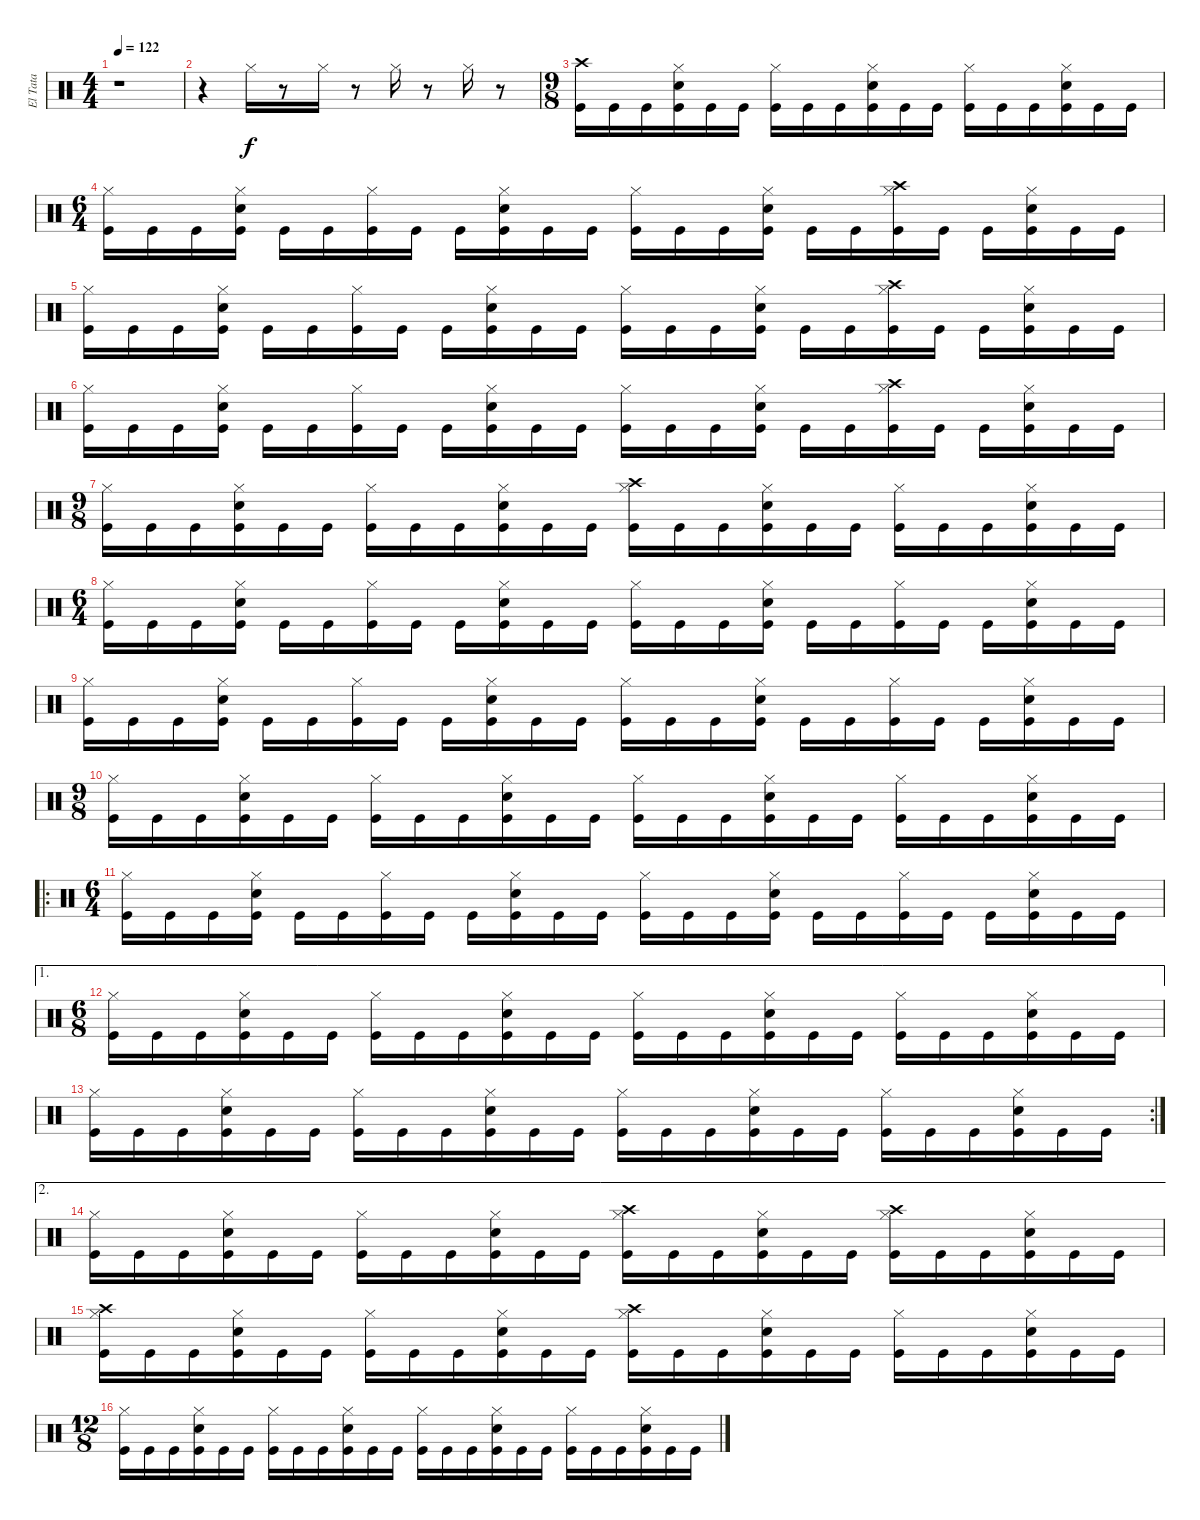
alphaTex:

\track ("El Tata" "El Tata") {instrument percussion}
\staff {score}
\articulation defaults
\ts (4 4)
\tempo 122
\clef neutral
\ks c
r.1{dy f} |
r.4 "Hi-Hat (closed)".16 r.8 "Hi-Hat (closed)".16 r.8 "Hi-Hat (closed)".16 r.8 "Hi-Hat (closed)".16 r.8 |
\ts (9 8)
("Kick (hit)" "Crash high (hit)").16 "Kick (hit)".16 "Kick (hit)".16 ("Kick (hit)" "Hi-Hat (closed)" "Electric Snare (hit)").16 "Kick (hit)".16 "Kick (hit)".16 ("Kick (hit)" "Hi-Hat (closed)").16 "Kick (hit)".16 "Kick (hit)".16 ("Kick (hit)" "Hi-Hat (closed)" "Electric Snare (hit)").16 "Kick (hit)".16 "Kick (hit)".16 ("Kick (hit)" "Hi-Hat (closed)").16 "Kick (hit)".16 "Kick (hit)".16 ("Kick (hit)" "Hi-Hat (closed)" "Electric Snare (hit)").16 "Kick (hit)".16 "Kick (hit)".16 |
\ts (6 4)
("Kick (hit)" "Hi-Hat (closed)").16 "Kick (hit)".16 "Kick (hit)".16 ("Kick (hit)" "Hi-Hat (closed)" "Electric Snare (hit)").16 "Kick (hit)".16 "Kick (hit)".16 ("Kick (hit)" "Hi-Hat (closed)").16 "Kick (hit)".16 "Kick (hit)".16 ("Kick (hit)" "Hi-Hat (closed)" "Electric Snare (hit)").16 "Kick (hit)".16 "Kick (hit)".16 ("Kick (hit)" "Hi-Hat (closed)").16 "Kick (hit)".16 "Kick (hit)".16 ("Kick (hit)" "Hi-Hat (closed)" "Electric Snare (hit)").16 "Kick (hit)".16 "Kick (hit)".16 ("Kick (hit)" "Hi-Hat (closed)" "Crash high (hit)").16 "Kick (hit)".16 "Kick (hit)".16 ("Kick (hit)" "Hi-Hat (closed)" "Electric Snare (hit)").16 "Kick (hit)".16 "Kick (hit)".16 |
("Kick (hit)" "Hi-Hat (closed)").16 "Kick (hit)".16 "Kick (hit)".16 ("Kick (hit)" "Hi-Hat (closed)" "Electric Snare (hit)").16 "Kick (hit)".16 "Kick (hit)".16 ("Kick (hit)" "Hi-Hat (closed)").16 "Kick (hit)".16 "Kick (hit)".16 ("Kick (hit)" "Hi-Hat (closed)" "Electric Snare (hit)").16 "Kick (hit)".16 "Kick (hit)".16 ("Kick (hit)" "Hi-Hat (closed)").16 "Kick (hit)".16 "Kick (hit)".16 ("Kick (hit)" "Hi-Hat (closed)" "Electric Snare (hit)").16 "Kick (hit)".16 "Kick (hit)".16 ("Kick (hit)" "Hi-Hat (closed)" "Crash high (hit)").16 "Kick (hit)".16 "Kick (hit)".16 ("Kick (hit)" "Hi-Hat (closed)" "Electric Snare (hit)").16 "Kick (hit)".16 "Kick (hit)".16 |
("Kick (hit)" "Hi-Hat (closed)").16 "Kick (hit)".16 "Kick (hit)".16 ("Kick (hit)" "Hi-Hat (closed)" "Electric Snare (hit)").16 "Kick (hit)".16 "Kick (hit)".16 ("Kick (hit)" "Hi-Hat (closed)").16 "Kick (hit)".16 "Kick (hit)".16 ("Kick (hit)" "Hi-Hat (closed)" "Electric Snare (hit)").16 "Kick (hit)".16 "Kick (hit)".16 ("Kick (hit)" "Hi-Hat (closed)").16 "Kick (hit)".16 "Kick (hit)".16 ("Kick (hit)" "Hi-Hat (closed)" "Electric Snare (hit)").16 "Kick (hit)".16 "Kick (hit)".16 ("Kick (hit)" "Hi-Hat (closed)" "Crash high (hit)").16 "Kick (hit)".16 "Kick (hit)".16 ("Kick (hit)" "Hi-Hat (closed)" "Electric Snare (hit)").16 "Kick (hit)".16 "Kick (hit)".16 |
\ts (9 8)
("Kick (hit)" "Hi-Hat (closed)").16 "Kick (hit)".16 "Kick (hit)".16 ("Kick (hit)" "Hi-Hat (closed)" "Electric Snare (hit)").16 "Kick (hit)".16 "Kick (hit)".16 ("Kick (hit)" "Hi-Hat (closed)").16 "Kick (hit)".16 "Kick (hit)".16 ("Kick (hit)" "Hi-Hat (closed)" "Electric Snare (hit)").16 "Kick (hit)".16 "Kick (hit)".16 ("Kick (hit)" "Hi-Hat (closed)" "Crash high (hit)").16 "Kick (hit)".16 "Kick (hit)".16 ("Kick (hit)" "Hi-Hat (closed)" "Electric Snare (hit)").16 "Kick (hit)".16 "Kick (hit)".16 ("Kick (hit)" "Hi-Hat (closed)").16 "Kick (hit)".16 "Kick (hit)".16 ("Kick (hit)" "Hi-Hat (closed)" "Electric Snare (hit)").16 "Kick (hit)".16 "Kick (hit)".16 |
\ts (6 4)
("Kick (hit)" "Hi-Hat (closed)").16 "Kick (hit)".16 "Kick (hit)".16 ("Kick (hit)" "Hi-Hat (closed)" "Electric Snare (hit)").16 "Kick (hit)".16 "Kick (hit)".16 ("Kick (hit)" "Hi-Hat (closed)").16 "Kick (hit)".16 "Kick (hit)".16 ("Kick (hit)" "Hi-Hat (closed)" "Electric Snare (hit)").16 "Kick (hit)".16 "Kick (hit)".16 ("Kick (hit)" "Hi-Hat (closed)").16 "Kick (hit)".16 "Kick (hit)".16 ("Kick (hit)" "Hi-Hat (closed)" "Electric Snare (hit)").16 "Kick (hit)".16 "Kick (hit)".16 ("Kick (hit)" "Hi-Hat (closed)").16 "Kick (hit)".16 "Kick (hit)".16 ("Kick (hit)" "Hi-Hat (closed)" "Electric Snare (hit)").16 "Kick (hit)".16 "Kick (hit)".16 |
("Kick (hit)" "Hi-Hat (closed)").16 "Kick (hit)".16 "Kick (hit)".16 ("Kick (hit)" "Hi-Hat (closed)" "Electric Snare (hit)").16 "Kick (hit)".16 "Kick (hit)".16 ("Kick (hit)" "Hi-Hat (closed)").16 "Kick (hit)".16 "Kick (hit)".16 ("Kick (hit)" "Hi-Hat (closed)" "Electric Snare (hit)").16 "Kick (hit)".16 "Kick (hit)".16 ("Kick (hit)" "Hi-Hat (closed)").16 "Kick (hit)".16 "Kick (hit)".16 ("Kick (hit)" "Hi-Hat (closed)" "Electric Snare (hit)").16 "Kick (hit)".16 "Kick (hit)".16 ("Kick (hit)" "Hi-Hat (closed)").16 "Kick (hit)".16 "Kick (hit)".16 ("Kick (hit)" "Hi-Hat (closed)" "Electric Snare (hit)").16 "Kick (hit)".16 "Kick (hit)".16 |
\ts (9 8)
("Kick (hit)" "Hi-Hat (closed)").16 "Kick (hit)".16 "Kick (hit)".16 ("Kick (hit)" "Hi-Hat (closed)" "Electric Snare (hit)").16 "Kick (hit)".16 "Kick (hit)".16 ("Kick (hit)" "Hi-Hat (closed)").16 "Kick (hit)".16 "Kick (hit)".16 ("Kick (hit)" "Hi-Hat (closed)" "Electric Snare (hit)").16 "Kick (hit)".16 "Kick (hit)".16 ("Kick (hit)" "Hi-Hat (closed)").16 "Kick (hit)".16 "Kick (hit)".16 ("Kick (hit)" "Hi-Hat (closed)" "Electric Snare (hit)").16 "Kick (hit)".16 "Kick (hit)".16 ("Kick (hit)" "Hi-Hat (closed)").16 "Kick (hit)".16 "Kick (hit)".16 ("Kick (hit)" "Hi-Hat (closed)" "Electric Snare (hit)").16 "Kick (hit)".16 "Kick (hit)".16 |
\ro
\ts (6 4)
("Kick (hit)" "Hi-Hat (closed)").16 "Kick (hit)".16 "Kick (hit)".16 ("Kick (hit)" "Hi-Hat (closed)" "Electric Snare (hit)").16 "Kick (hit)".16 "Kick (hit)".16 ("Kick (hit)" "Hi-Hat (closed)").16 "Kick (hit)".16 "Kick (hit)".16 ("Kick (hit)" "Hi-Hat (closed)" "Electric Snare (hit)").16 "Kick (hit)".16 "Kick (hit)".16 ("Kick (hit)" "Hi-Hat (closed)").16 "Kick (hit)".16 "Kick (hit)".16 ("Kick (hit)" "Hi-Hat (closed)" "Electric Snare (hit)").16 "Kick (hit)".16 "Kick (hit)".16 ("Kick (hit)" "Hi-Hat (closed)").16 "Kick (hit)".16 "Kick (hit)".16 ("Kick (hit)" "Hi-Hat (closed)" "Electric Snare (hit)").16 "Kick (hit)".16 "Kick (hit)".16 |
\ae 1
\ts (6 8)
("Kick (hit)" "Hi-Hat (closed)").16 "Kick (hit)".16 "Kick (hit)".16 ("Kick (hit)" "Hi-Hat (closed)" "Electric Snare (hit)").16 "Kick (hit)".16 "Kick (hit)".16 ("Kick (hit)" "Hi-Hat (closed)").16 "Kick (hit)".16 "Kick (hit)".16 ("Kick (hit)" "Hi-Hat (closed)" "Electric Snare (hit)").16 "Kick (hit)".16 "Kick (hit)".16 ("Kick (hit)" "Hi-Hat (closed)").16 "Kick (hit)".16 "Kick (hit)".16 ("Kick (hit)" "Hi-Hat (closed)" "Electric Snare (hit)").16 "Kick (hit)".16 "Kick (hit)".16 ("Kick (hit)" "Hi-Hat (closed)").16 "Kick (hit)".16 "Kick (hit)".16 ("Kick (hit)" "Hi-Hat (closed)" "Electric Snare (hit)").16 "Kick (hit)".16 "Kick (hit)".16 |
\rc 2
("Kick (hit)" "Hi-Hat (closed)").16 "Kick (hit)".16 "Kick (hit)".16 ("Kick (hit)" "Hi-Hat (closed)" "Electric Snare (hit)").16 "Kick (hit)".16 "Kick (hit)".16 ("Kick (hit)" "Hi-Hat (closed)").16 "Kick (hit)".16 "Kick (hit)".16 ("Kick (hit)" "Hi-Hat (closed)" "Electric Snare (hit)").16 "Kick (hit)".16 "Kick (hit)".16 ("Kick (hit)" "Hi-Hat (closed)").16 "Kick (hit)".16 "Kick (hit)".16 ("Kick (hit)" "Hi-Hat (closed)" "Electric Snare (hit)").16 "Kick (hit)".16 "Kick (hit)".16 ("Kick (hit)" "Hi-Hat (closed)").16 "Kick (hit)".16 "Kick (hit)".16 ("Kick (hit)" "Hi-Hat (closed)" "Electric Snare (hit)").16 "Kick (hit)".16 "Kick (hit)".16 |
\ae 2
("Kick (hit)" "Hi-Hat (closed)").16 "Kick (hit)".16 "Kick (hit)".16 ("Kick (hit)" "Hi-Hat (closed)" "Electric Snare (hit)").16 "Kick (hit)".16 "Kick (hit)".16 ("Kick (hit)" "Hi-Hat (closed)").16 "Kick (hit)".16 "Kick (hit)".16 ("Kick (hit)" "Hi-Hat (closed)" "Electric Snare (hit)").16 "Kick (hit)".16 "Kick (hit)".16 ("Kick (hit)" "Hi-Hat (closed)" "Crash high (hit)").16 "Kick (hit)".16 "Kick (hit)".16 ("Kick (hit)" "Hi-Hat (closed)" "Electric Snare (hit)").16 "Kick (hit)".16 "Kick (hit)".16 ("Kick (hit)" "Hi-Hat (closed)" "Crash high (hit)").16 "Kick (hit)".16 "Kick (hit)".16 ("Kick (hit)" "Hi-Hat (closed)" "Electric Snare (hit)").16 "Kick (hit)".16 "Kick (hit)".16 |
("Kick (hit)" "Hi-Hat (closed)" "Crash high (hit)").16 "Kick (hit)".16 "Kick (hit)".16 ("Kick (hit)" "Hi-Hat (closed)" "Electric Snare (hit)").16 "Kick (hit)".16 "Kick (hit)".16 ("Kick (hit)" "Hi-Hat (closed)").16 "Kick (hit)".16 "Kick (hit)".16 ("Kick (hit)" "Hi-Hat (closed)" "Electric Snare (hit)").16 "Kick (hit)".16 "Kick (hit)".16 ("Kick (hit)" "Hi-Hat (closed)" "Crash high (hit)").16 "Kick (hit)".16 "Kick (hit)".16 ("Kick (hit)" "Hi-Hat (closed)" "Electric Snare (hit)").16 "Kick (hit)".16 "Kick (hit)".16 ("Kick (hit)" "Hi-Hat (closed)").16 "Kick (hit)".16 "Kick (hit)".16 ("Kick (hit)" "Hi-Hat (closed)" "Electric Snare (hit)").16 "Kick (hit)".16 "Kick (hit)".16 |
\ts (12 8)
("Kick (hit)" "Hi-Hat (closed)").16 "Kick (hit)".16 "Kick (hit)".16 ("Kick (hit)" "Hi-Hat (closed)" "Electric Snare (hit)").16 "Kick (hit)".16 "Kick (hit)".16 ("Kick (hit)" "Hi-Hat (closed)").16 "Kick (hit)".16 "Kick (hit)".16 ("Kick (hit)" "Hi-Hat (closed)" "Electric Snare (hit)").16 "Kick (hit)".16 "Kick (hit)".16 ("Kick (hit)" "Hi-Hat (closed)").16 "Kick (hit)".16 "Kick (hit)".16 ("Kick (hit)" "Hi-Hat (closed)" "Electric Snare (hit)").16 "Kick (hit)".16 "Kick (hit)".16 ("Kick (hit)" "Hi-Hat (closed)").16 "Kick (hit)".16 "Kick (hit)".16 ("Kick (hit)" "Hi-Hat (closed)" "Electric Snare (hit)").16 "Kick (hit)".16 "Kick (hit)".16
